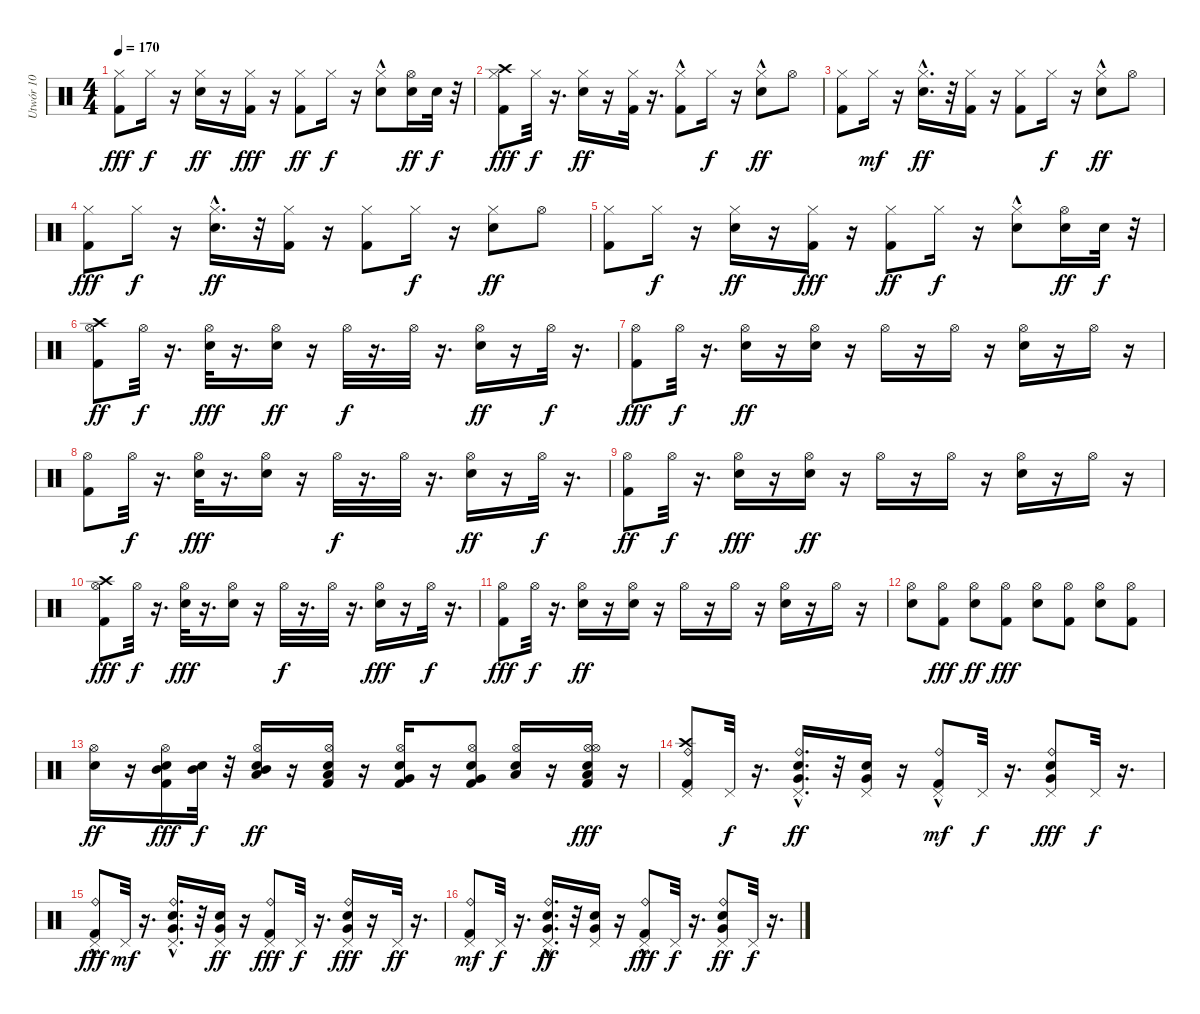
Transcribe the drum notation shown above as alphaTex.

\track ("Utwór 10" "Utwór 10") {instrument percussion}
\staff {score}
\articulation defaults
\ts (4 4)
\tempo 170
\clef neutral
\ks c
("Hi-Hat (closed)" "Kick (hit) 2").8{dy fff} "Hi-Hat (closed)".16{dy f} r.16 ("Hi-Hat (closed)" "Snare (hit) 2").16{dy ff} r.16 ("Hi-Hat (closed)" "Kick (hit) 2").16{dy fff} r.16 ("Kick (hit) 2" "Hi-Hat (closed)").8{dy ff} "Hi-Hat (closed)".16{dy f} r.16 ("Hi-Hat (closed)"{hac} "Snare (hit) 2").8 ("Hi-Hat (open)" "Snare (hit) 2").16{dy ff} "Snare (hit) 2".32{dy f} r.32 |
("Hi-Hat (closed)" "Kick (hit) 2" "Crash high (hit)").8{dy fff} "Hi-Hat (closed)".32{dy f} r.16{d} ("Snare (hit) 2" "Hi-Hat (closed)").16{dy ff} r.16 ("Hi-Hat (closed)" "Kick (hit) 2").32 r.16{d} ("Hi-Hat (closed)" "Kick (hit) 2"{hac}).8 "Hi-Hat (closed)".16{dy f} r.16 ("Snare (hit) 2" "Hi-Hat (closed)"{hac}).8{dy ff} "Hi-Hat (open)".8 |
("Hi-Hat (closed)" "Kick (hit) 2").8 "Hi-Hat (closed)".16{dy mf} r.16 ("Hi-Hat (closed)" "Snare (hit) 2"{hac}).16{d dy ff} r.32 ("Hi-Hat (closed)" "Kick (hit) 2").16 r.16 ("Kick (hit) 2" "Hi-Hat (closed)").8 "Hi-Hat (closed)".16{dy f} r.16 ("Snare (hit) 2"{hac} "Hi-Hat (closed)").8{dy ff} "Hi-Hat (open)".8 |
("Hi-Hat (closed)" "Kick (hit) 2").8{dy fff} "Hi-Hat (closed)".16{dy f} r.16 ("Snare (hit) 2"{hac} "Hi-Hat (closed)").16{d dy ff} r.32 ("Kick (hit) 2" "Hi-Hat (closed)").16 r.16 ("Kick (hit) 2" "Hi-Hat (closed)").8 "Hi-Hat (closed)".16{dy f} r.16 ("Hi-Hat (closed)" "Snare (hit) 2").8{dy ff} "Hi-Hat (open)".8 |
("Kick (hit) 2" "Hi-Hat (closed)").8 "Hi-Hat (closed)".16{dy f} r.16 ("Hi-Hat (closed)" "Snare (hit) 2").16{dy ff} r.16 ("Hi-Hat (closed)" "Kick (hit) 2").16{dy fff} r.16 ("Hi-Hat (closed)" "Kick (hit) 2").8{dy ff} "Hi-Hat (closed)".16{dy f} r.16 ("Snare (hit) 2" "Hi-Hat (closed)"{hac}).8 ("Hi-Hat (open)" "Snare (hit) 2").16{dy ff} "Snare (hit) 2".32{dy f} r.32 |
("Crash high (hit)" "Kick (hit) 2" "Hi-Hat (open)").8{dy ff} "Hi-Hat (open)".32{dy f} r.16{d} ("Hi-Hat (open)" "Snare (hit) 2").32{dy fff} r.16{d} ("Snare (hit) 2" "Hi-Hat (open)").16{dy ff} r.16 "Hi-Hat (open)".32{dy f} r.16{d} "Hi-Hat (open)".32 r.16{d} ("Snare (hit) 2" "Hi-Hat (open)").16{dy ff} r.16 "Hi-Hat (open)".32{dy f} r.16{d} |
("Hi-Hat (open)" "Kick (hit) 2").8{dy fff} "Hi-Hat (open)".32{dy f} r.16{d} ("Snare (hit) 2" "Hi-Hat (open)").16{dy ff} r.16 ("Snare (hit) 2" "Hi-Hat (open)").16 r.16 "Hi-Hat (open)".16 r.16 "Hi-Hat (open)".16 r.16 ("Snare (hit) 2" "Hi-Hat (open)").16 r.16 "Hi-Hat (open)".16 r.16 |
("Kick (hit) 2" "Hi-Hat (open)").8 "Hi-Hat (open)".32{dy f} r.16{d} ("Hi-Hat (open)" "Snare (hit) 2").32{dy fff} r.16{d} ("Hi-Hat (open)" "Snare (hit) 2").16 r.16 "Hi-Hat (open)".32{dy f} r.16{d} "Hi-Hat (open)".32 r.16{d} ("Snare (hit) 2" "Hi-Hat (open)").16{dy ff} r.16 "Hi-Hat (open)".32{dy f} r.16{d} |
("Kick (hit) 2" "Hi-Hat (open)").8{dy ff} "Hi-Hat (open)".32{dy f} r.16{d} ("Hi-Hat (open)" "Snare (hit) 2").16{dy fff} r.16 ("Hi-Hat (open)" "Snare (hit) 2").16{dy ff} r.16 "Hi-Hat (open)".16 r.16 "Hi-Hat (open)".16 r.16 ("Snare (hit) 2" "Hi-Hat (open)").16 r.16 "Hi-Hat (open)".16 r.16 |
("Crash high (hit)" "Hi-Hat (open)" "Kick (hit) 2").8{dy fff} "Hi-Hat (open)".32{dy f} r.16{d} ("Hi-Hat (open)" "Snare (hit) 2").32{dy fff} r.16{d} ("Hi-Hat (open)" "Snare (hit) 2").16 r.16 "Hi-Hat (open)".32{dy f} r.16{d} "Hi-Hat (open)".32 r.16{d} ("Hi-Hat (open)" "Snare (hit) 2").16{dy fff} r.16 "Hi-Hat (open)".32{dy f} r.16{d} |
("Hi-Hat (open)" "Kick (hit) 2").8{dy fff} "Hi-Hat (open)".32{dy f} r.16{d} ("Snare (hit) 2" "Hi-Hat (open)").16{dy ff} r.16 ("Snare (hit) 2" "Hi-Hat (open)").16 r.16 "Hi-Hat (open)".16 r.16 "Hi-Hat (open)".16 r.16 ("Snare (hit) 2" "Hi-Hat (open)").16 r.16 "Hi-Hat (open)".16 r.16 |
("Snare (hit) 2" "Hi-Hat (open)").8 ("Hi-Hat (open)" "Kick (hit) 2").8{dy fff} ("Snare (hit) 2" "Hi-Hat (open)").8{dy ff} ("Hi-Hat (open)" "Kick (hit) 2").8{dy fff} ("Hi-Hat (open)" "Snare (hit) 2").8 ("Kick (hit) 2" "Hi-Hat (open)").8 ("Hi-Hat (open)" "Snare (hit) 2").8 ("Hi-Hat (open)" "Kick (hit) 2").8 |
("Hi-Hat (open)" "Snare (hit) 2").16{dy ff} r.16 ("Hi-Hat (open)" "Snare (hit) 2" "Kick (hit) 2" "Mid Tom (hit)").16{dy fff} ("Mid Tom (hit)" "Snare (hit) 2").32{dy f} r.32 ("Mid Tom (hit)" "Low Tom (hit)" "Hi-Hat (open)" "Snare (hit) 2").16{dy ff} r.16 ("Low Tom (hit)" "Snare (hit) 2" "Kick (hit) 2" "Hi-Hat (open)").16 r.16 ("Kick (hit) 2" "Very Low Tom (hit)" "Hi-Hat (open)" "Snare (hit) 2").16 r.16 ("Snare (hit) 2" "Very Low Tom (hit)" "Kick (hit) 2" "Hi-Hat (open)").8 ("Snare (hit) 2" "Low Floor Tom (hit)" "Hi-Hat (open)").16 r.16 ("Hi-Hat (open)" "Kick (hit) 2" "Snare (hit) 2" "Low Tom (hit)" "Hi-Hat (open)").16{dy fff} r.16 |
("Ride (bell)" "Pedal Hi-Hat (hit)" "Kick (hit) 2" "Crash high (hit)").8 "Pedal Hi-Hat (hit)".32{dy f} r.16{d} ("Pedal Hi-Hat (hit)" "Snare (hit) 2" "Very Low Tom (hit)" "Ride (bell)"{hac}).16{d dy ff} r.32 ("Pedal Hi-Hat (hit)" "Snare (hit) 2" "Very Low Tom (hit)").16 r.16 ("Kick (hit) 2" "Ride (bell)"{hac} "Pedal Hi-Hat (hit)").8{dy mf} "Pedal Hi-Hat (hit)".32{dy f} r.16{d} ("Pedal Hi-Hat (hit)" "Snare (hit) 2" "Very Low Tom (hit)" "Ride (bell)").8{dy fff} "Pedal Hi-Hat (hit)".32{dy f} r.16{d} |
("Pedal Hi-Hat (hit)" "Ride (bell)"{hac} "Kick (hit) 2"{hac}).8{dy fff} "Pedal Hi-Hat (hit)".32{dy mf} r.16{d} ("Ride (bell)"{hac} "Snare (hit) 2" "Pedal Hi-Hat (hit)" "Very Low Tom (hit)").16{d} r.32 ("Very Low Tom (hit)" "Snare (hit) 2" "Pedal Hi-Hat (hit)").16{dy ff} r.16 ("Kick (hit) 2" "Ride (bell)" "Pedal Hi-Hat (hit)").8{dy fff} "Pedal Hi-Hat (hit)".32{dy f} r.16{d} ("Snare (hit) 2" "Pedal Hi-Hat (hit)" "Very Low Tom (hit)" "Ride (bell)").16{dy fff} r.16 "Pedal Hi-Hat (hit)".32{dy ff} r.16{d} |
("Ride (bell)" "Kick (hit) 2" "Pedal Hi-Hat (hit)").8{dy mf} "Pedal Hi-Hat (hit)".32{dy f} r.16{d} ("Snare (hit) 2" "Very Low Tom (hit)" "Ride (bell)"{hac} "Pedal Hi-Hat (hit)").16{d dy ff} r.32 ("Pedal Hi-Hat (hit)" "Very Low Tom (hit)" "Snare (hit) 2").16 r.16 ("Pedal Hi-Hat (hit)" "Ride (bell)"{hac} "Kick (hit) 2").8{dy fff} "Pedal Hi-Hat (hit)".32{dy f} r.16{d} ("Very Low Tom (hit)" "Ride (bell)" "Pedal Hi-Hat (hit)" "Snare (hit) 2").8{dy ff} "Pedal Hi-Hat (hit)".32{dy f} r.16{d}
